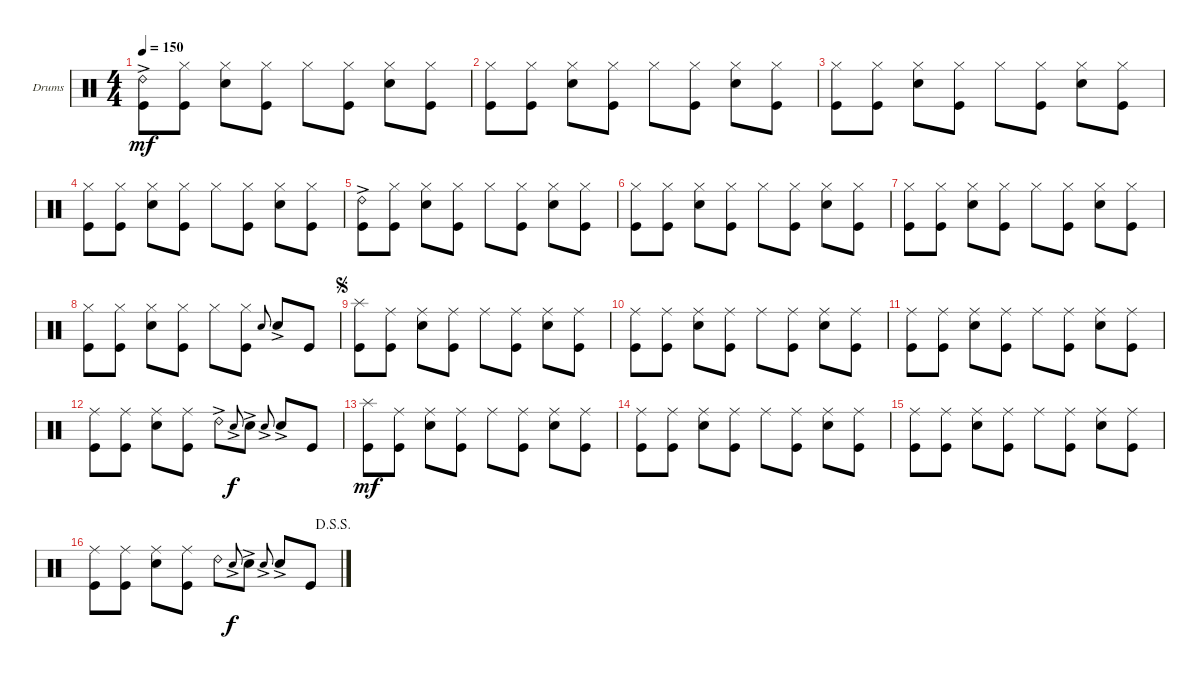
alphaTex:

\bracketExtendMode groupsimilarinstruments
\firstSystemTrackNameOrientation horizontal
\otherSystemsTrackNameOrientation horizontal
\track ("Drumkit" "Drums") {instrument percussion}
\staff {score}
\articulation defaults
\ts (4 4)
\tempo 150
\clef neutral
\ks c
("Ride (bell) 2"{ac} "Kick (hit)").8{dy mf} ("Hi-Hat (closed)" "Kick (hit)").8 ("Hi-Hat (closed)" "Snare (hit) 2").8 ("Hi-Hat (closed)" "Kick (hit)").8 "Hi-Hat (closed)".8 ("Hi-Hat (closed)" "Kick (hit)").8 ("Hi-Hat (closed)" "Snare (hit) 2").8 ("Hi-Hat (closed)" "Kick (hit)").8 |
("Hi-Hat (closed)" "Kick (hit)").8 ("Hi-Hat (closed)" "Kick (hit)").8 ("Hi-Hat (closed)" "Snare (hit) 2").8 ("Hi-Hat (closed)" "Kick (hit)").8 "Hi-Hat (closed)".8 ("Hi-Hat (closed)" "Kick (hit)").8 ("Hi-Hat (closed)" "Snare (hit) 2").8 ("Hi-Hat (closed)" "Kick (hit)").8 |
("Hi-Hat (closed)" "Kick (hit)").8 ("Hi-Hat (closed)" "Kick (hit)").8 ("Hi-Hat (closed)" "Snare (hit) 2").8 ("Hi-Hat (closed)" "Kick (hit)").8 "Hi-Hat (closed)".8 ("Hi-Hat (closed)" "Kick (hit)").8 ("Hi-Hat (closed)" "Snare (hit) 2").8 ("Hi-Hat (closed)" "Kick (hit)").8 |
("Hi-Hat (closed)" "Kick (hit)").8 ("Hi-Hat (closed)" "Kick (hit)").8 ("Hi-Hat (closed)" "Snare (hit) 2").8 ("Hi-Hat (closed)" "Kick (hit)").8 "Hi-Hat (closed)".8 ("Hi-Hat (closed)" "Kick (hit)").8 ("Hi-Hat (closed)" "Snare (hit) 2").8 ("Hi-Hat (closed)" "Kick (hit)").8 |
("Kick (hit)" "Ride (bell) 2"{ac}).8 ("Hi-Hat (closed)" "Kick (hit)").8 ("Hi-Hat (closed)" "Snare (hit) 2").8 ("Hi-Hat (closed)" "Kick (hit)").8 "Hi-Hat (closed)".8 ("Hi-Hat (closed)" "Kick (hit)").8 ("Hi-Hat (closed)" "Snare (hit) 2").8 ("Hi-Hat (closed)" "Kick (hit)").8 |
("Hi-Hat (closed)" "Kick (hit)").8 ("Hi-Hat (closed)" "Kick (hit)").8 ("Hi-Hat (closed)" "Snare (hit) 2").8 ("Hi-Hat (closed)" "Kick (hit)").8 "Hi-Hat (closed)".8 ("Hi-Hat (closed)" "Kick (hit)").8 ("Hi-Hat (closed)" "Snare (hit) 2").8 ("Hi-Hat (closed)" "Kick (hit)").8 |
("Hi-Hat (closed)" "Kick (hit)").8 ("Hi-Hat (closed)" "Kick (hit)").8 ("Hi-Hat (closed)" "Snare (hit) 2").8 ("Hi-Hat (closed)" "Kick (hit)").8 "Hi-Hat (closed)".8 ("Hi-Hat (closed)" "Kick (hit)").8 ("Hi-Hat (closed)" "Snare (hit) 2").8 ("Hi-Hat (closed)" "Kick (hit)").8 |
("Hi-Hat (closed)" "Kick (hit)").8 ("Hi-Hat (closed)" "Kick (hit)").8 ("Hi-Hat (closed)" "Snare (hit) 2").8 ("Hi-Hat (closed)" "Kick (hit)").8 "Hi-Hat (closed)".8 ("Hi-Hat (closed)" "Kick (hit)").8 "Snare (hit) 2".8{gr onbeat} "Snare (hit) 2"{ac}.8 "Kick (hit)".8 |
\jump segno
("Kick (hit)" "Splash (hit)").8 ("Kick (hit)" "Ride (middle)").8 ("Snare (hit) 2" "Ride (middle)").8 ("Kick (hit)" "Ride (middle)").8 "Ride (middle)".8 ("Kick (hit)" "Ride (middle)").8 ("Snare (hit) 2" "Ride (middle)").8 ("Kick (hit)" "Ride (middle)").8 |
("Kick (hit)" "Ride (middle)").8 ("Kick (hit)" "Ride (middle)").8 ("Snare (hit) 2" "Ride (middle)").8 ("Kick (hit)" "Ride (middle)").8 "Ride (middle)".8 ("Kick (hit)" "Ride (middle)").8 ("Snare (hit) 2" "Ride (middle)").8 ("Kick (hit)" "Ride (middle)").8 |
("Kick (hit)" "Ride (middle)").8 ("Kick (hit)" "Ride (middle)").8 ("Snare (hit) 2" "Ride (middle)").8 ("Kick (hit)" "Ride (middle)").8 "Ride (middle)".8 ("Kick (hit)" "Ride (middle)").8 ("Snare (hit) 2" "Ride (middle)").8 ("Kick (hit)" "Ride (middle)").8 |
("Kick (hit)" "Ride (middle)").8 ("Kick (hit)" "Ride (middle)").8 ("Snare (hit) 2" "Ride (middle)").8 ("Kick (hit)" "Ride (middle)").8 "Ride (bell) 2"{ac}.8 "Snare (hit) 2"{ac}.8{gr onbeat dy f} "Snare (hit) 2"{ac}.8 "Snare (hit) 2"{ac}.8{gr onbeat} "Snare (hit) 2"{ac}.8 "Kick (hit)".8 |
("Kick (hit)" "Splash (hit)").8{dy mf} ("Kick (hit)" "Ride (middle)").8 ("Snare (hit) 2" "Ride (middle)").8 ("Kick (hit)" "Ride (middle)").8 "Ride (middle)".8 ("Kick (hit)" "Ride (middle)").8 ("Snare (hit) 2" "Ride (middle)").8 ("Kick (hit)" "Ride (middle)").8 |
("Kick (hit)" "Ride (middle)").8 ("Kick (hit)" "Ride (middle)").8 ("Snare (hit) 2" "Ride (middle)").8 ("Kick (hit)" "Ride (middle)").8 "Ride (middle)".8 ("Kick (hit)" "Ride (middle)").8 ("Snare (hit) 2" "Ride (middle)").8 ("Kick (hit)" "Ride (middle)").8 |
("Kick (hit)" "Ride (middle)").8 ("Kick (hit)" "Ride (middle)").8 ("Snare (hit) 2" "Ride (middle)").8 ("Kick (hit)" "Ride (middle)").8 "Ride (middle)".8 ("Kick (hit)" "Ride (middle)").8 ("Snare (hit) 2" "Ride (middle)").8 ("Kick (hit)" "Ride (middle)").8 |
\jump dalsegnosegno
("Kick (hit)" "Ride (middle)").8 ("Kick (hit)" "Ride (middle)").8 ("Snare (hit) 2" "Ride (middle)").8 ("Kick (hit)" "Ride (middle)").8 "Ride (bell) 2".8 "Snare (hit) 2"{ac}.8{gr onbeat dy f} "Snare (hit) 2"{ac}.8 "Snare (hit) 2"{ac}.8{gr onbeat} "Snare (hit) 2"{ac}.8 "Kick (hit)".8
